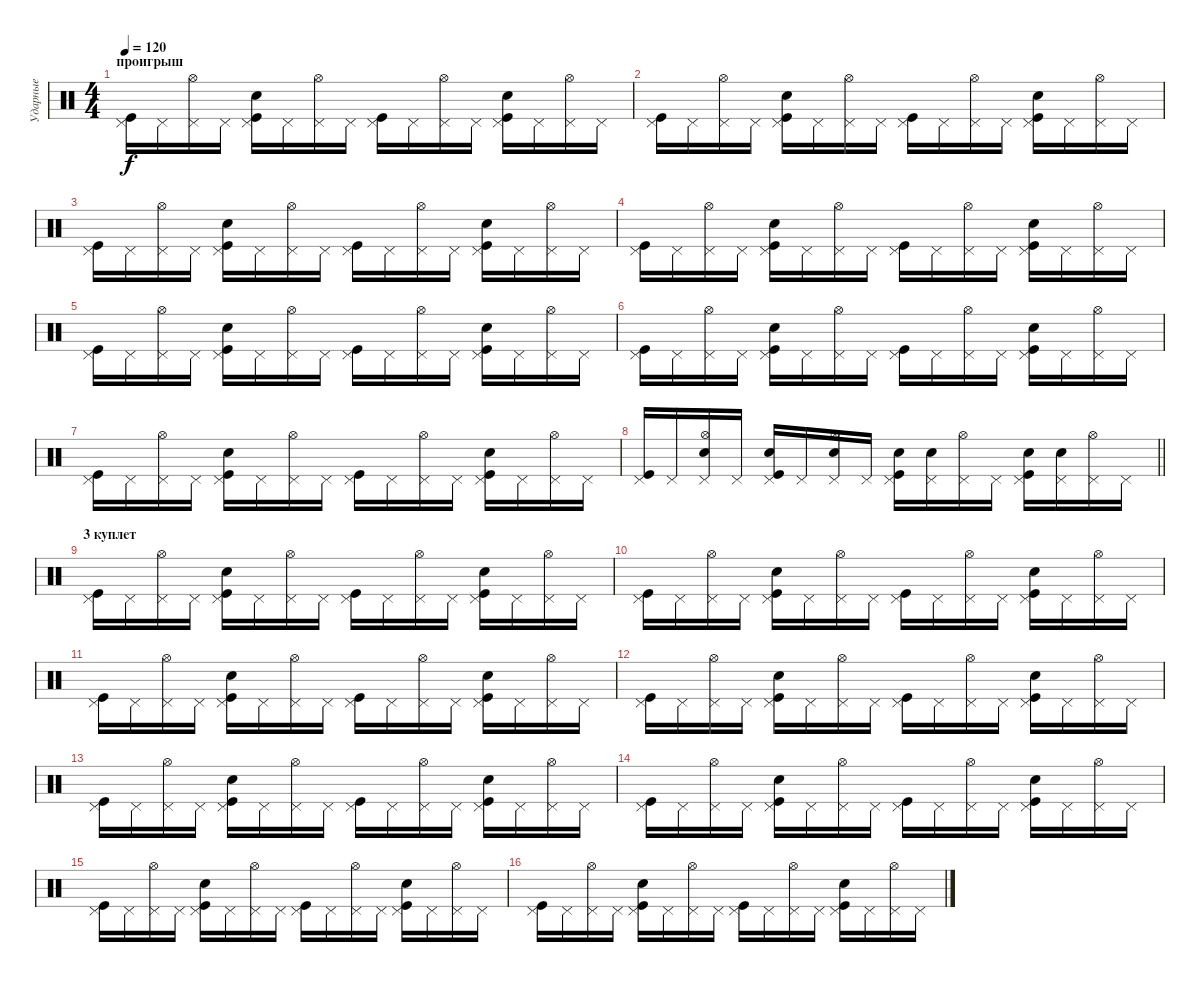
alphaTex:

\track ("Ударные" "Ударные") {instrument percussion}
\staff {score}
\articulation defaults
\ts (4 4)
\section ("" "проигрыш")
\tempo 120
\clef neutral
\ks c
("Pedal Hi-Hat (hit)" "Kick (hit)").16{dy f} "Pedal Hi-Hat (hit)".16 ("Pedal Hi-Hat (hit)" "Hi-Hat (open)").16 "Pedal Hi-Hat (hit)".16 ("Pedal Hi-Hat (hit)" "Kick (hit)" "Snare (hit) 2").16 "Pedal Hi-Hat (hit)".16 ("Pedal Hi-Hat (hit)" "Hi-Hat (open)").16 "Pedal Hi-Hat (hit)".16 ("Pedal Hi-Hat (hit)" "Kick (hit)").16 "Pedal Hi-Hat (hit)".16 ("Pedal Hi-Hat (hit)" "Hi-Hat (open)").16 "Pedal Hi-Hat (hit)".16 ("Pedal Hi-Hat (hit)" "Kick (hit)" "Snare (hit) 2").16 "Pedal Hi-Hat (hit)".16 ("Pedal Hi-Hat (hit)" "Hi-Hat (open)").16 "Pedal Hi-Hat (hit)".16 |
("Pedal Hi-Hat (hit)" "Kick (hit)").16 "Pedal Hi-Hat (hit)".16 ("Pedal Hi-Hat (hit)" "Hi-Hat (open)").16 "Pedal Hi-Hat (hit)".16 ("Pedal Hi-Hat (hit)" "Kick (hit)" "Snare (hit) 2").16 "Pedal Hi-Hat (hit)".16 ("Pedal Hi-Hat (hit)" "Hi-Hat (open)").16 "Pedal Hi-Hat (hit)".16 ("Pedal Hi-Hat (hit)" "Kick (hit)").16 "Pedal Hi-Hat (hit)".16 ("Pedal Hi-Hat (hit)" "Hi-Hat (open)").16 "Pedal Hi-Hat (hit)".16 ("Pedal Hi-Hat (hit)" "Kick (hit)" "Snare (hit) 2").16 "Pedal Hi-Hat (hit)".16 ("Pedal Hi-Hat (hit)" "Hi-Hat (open)").16 "Pedal Hi-Hat (hit)".16 |
("Pedal Hi-Hat (hit)" "Kick (hit)").16 "Pedal Hi-Hat (hit)".16 ("Pedal Hi-Hat (hit)" "Hi-Hat (open)").16 "Pedal Hi-Hat (hit)".16 ("Pedal Hi-Hat (hit)" "Kick (hit)" "Snare (hit) 2").16 "Pedal Hi-Hat (hit)".16 ("Pedal Hi-Hat (hit)" "Hi-Hat (open)").16 "Pedal Hi-Hat (hit)".16 ("Pedal Hi-Hat (hit)" "Kick (hit)").16 "Pedal Hi-Hat (hit)".16 ("Pedal Hi-Hat (hit)" "Hi-Hat (open)").16 "Pedal Hi-Hat (hit)".16 ("Pedal Hi-Hat (hit)" "Kick (hit)" "Snare (hit) 2").16 "Pedal Hi-Hat (hit)".16 ("Pedal Hi-Hat (hit)" "Hi-Hat (open)").16 "Pedal Hi-Hat (hit)".16 |
("Pedal Hi-Hat (hit)" "Kick (hit)").16 "Pedal Hi-Hat (hit)".16 ("Pedal Hi-Hat (hit)" "Hi-Hat (open)").16 "Pedal Hi-Hat (hit)".16 ("Pedal Hi-Hat (hit)" "Kick (hit)" "Snare (hit) 2").16 "Pedal Hi-Hat (hit)".16 ("Pedal Hi-Hat (hit)" "Hi-Hat (open)").16 "Pedal Hi-Hat (hit)".16 ("Pedal Hi-Hat (hit)" "Kick (hit)").16 "Pedal Hi-Hat (hit)".16 ("Pedal Hi-Hat (hit)" "Hi-Hat (open)").16 "Pedal Hi-Hat (hit)".16 ("Pedal Hi-Hat (hit)" "Kick (hit)" "Snare (hit) 2").16 "Pedal Hi-Hat (hit)".16 ("Pedal Hi-Hat (hit)" "Hi-Hat (open)").16 "Pedal Hi-Hat (hit)".16 |
("Pedal Hi-Hat (hit)" "Kick (hit)").16 "Pedal Hi-Hat (hit)".16 ("Pedal Hi-Hat (hit)" "Hi-Hat (open)").16 "Pedal Hi-Hat (hit)".16 ("Pedal Hi-Hat (hit)" "Kick (hit)" "Snare (hit) 2").16 "Pedal Hi-Hat (hit)".16 ("Pedal Hi-Hat (hit)" "Hi-Hat (open)").16 "Pedal Hi-Hat (hit)".16 ("Pedal Hi-Hat (hit)" "Kick (hit)").16 "Pedal Hi-Hat (hit)".16 ("Pedal Hi-Hat (hit)" "Hi-Hat (open)").16 "Pedal Hi-Hat (hit)".16 ("Pedal Hi-Hat (hit)" "Kick (hit)" "Snare (hit) 2").16 "Pedal Hi-Hat (hit)".16 ("Pedal Hi-Hat (hit)" "Hi-Hat (open)").16 "Pedal Hi-Hat (hit)".16 |
("Pedal Hi-Hat (hit)" "Kick (hit)").16 "Pedal Hi-Hat (hit)".16 ("Pedal Hi-Hat (hit)" "Hi-Hat (open)").16 "Pedal Hi-Hat (hit)".16 ("Pedal Hi-Hat (hit)" "Kick (hit)" "Snare (hit) 2").16 "Pedal Hi-Hat (hit)".16 ("Pedal Hi-Hat (hit)" "Hi-Hat (open)").16 "Pedal Hi-Hat (hit)".16 ("Pedal Hi-Hat (hit)" "Kick (hit)").16 "Pedal Hi-Hat (hit)".16 ("Pedal Hi-Hat (hit)" "Hi-Hat (open)").16 "Pedal Hi-Hat (hit)".16 ("Pedal Hi-Hat (hit)" "Kick (hit)" "Snare (hit) 2").16 "Pedal Hi-Hat (hit)".16 ("Pedal Hi-Hat (hit)" "Hi-Hat (open)").16 "Pedal Hi-Hat (hit)".16 |
("Pedal Hi-Hat (hit)" "Kick (hit)").16 "Pedal Hi-Hat (hit)".16 ("Pedal Hi-Hat (hit)" "Hi-Hat (open)").16 "Pedal Hi-Hat (hit)".16 ("Pedal Hi-Hat (hit)" "Kick (hit)" "Snare (hit) 2").16 "Pedal Hi-Hat (hit)".16 ("Pedal Hi-Hat (hit)" "Hi-Hat (open)").16 "Pedal Hi-Hat (hit)".16 ("Pedal Hi-Hat (hit)" "Kick (hit)").16 "Pedal Hi-Hat (hit)".16 ("Pedal Hi-Hat (hit)" "Hi-Hat (open)").16 "Pedal Hi-Hat (hit)".16 ("Pedal Hi-Hat (hit)" "Kick (hit)" "Snare (hit) 2").16 "Pedal Hi-Hat (hit)".16 ("Pedal Hi-Hat (hit)" "Hi-Hat (open)").16 "Pedal Hi-Hat (hit)".16 |
\barLineRight lightlight
("Pedal Hi-Hat (hit)" "Kick (hit)").16 "Pedal Hi-Hat (hit)".16 ("Pedal Hi-Hat (hit)" "Hi-Hat (open)" "Snare (hit) 2").16 "Pedal Hi-Hat (hit)".16 ("Pedal Hi-Hat (hit)" "Kick (hit)" "Snare (hit) 2").16 "Pedal Hi-Hat (hit)".16 ("Pedal Hi-Hat (hit)" "Hi-Hat (open)" "Snare (hit) 2").16 "Pedal Hi-Hat (hit)".16 ("Pedal Hi-Hat (hit)" "Kick (hit)" "Snare (hit) 2").16 ("Pedal Hi-Hat (hit)" "Snare (hit) 2").16 ("Pedal Hi-Hat (hit)" "Hi-Hat (open)").16 "Pedal Hi-Hat (hit)".16 ("Pedal Hi-Hat (hit)" "Kick (hit)" "Snare (hit) 2").16 ("Pedal Hi-Hat (hit)" "Snare (hit) 2").16 ("Pedal Hi-Hat (hit)" "Hi-Hat (open)").16 "Pedal Hi-Hat (hit)".16 |
\section ("" "3 куплет")
("Pedal Hi-Hat (hit)" "Kick (hit)").16 "Pedal Hi-Hat (hit)".16 ("Pedal Hi-Hat (hit)" "Hi-Hat (open)").16 "Pedal Hi-Hat (hit)".16 ("Pedal Hi-Hat (hit)" "Kick (hit)" "Snare (hit) 2").16 "Pedal Hi-Hat (hit)".16 ("Pedal Hi-Hat (hit)" "Hi-Hat (open)").16 "Pedal Hi-Hat (hit)".16 ("Pedal Hi-Hat (hit)" "Kick (hit)").16 "Pedal Hi-Hat (hit)".16 ("Pedal Hi-Hat (hit)" "Hi-Hat (open)").16 "Pedal Hi-Hat (hit)".16 ("Pedal Hi-Hat (hit)" "Kick (hit)" "Snare (hit) 2").16 "Pedal Hi-Hat (hit)".16 ("Pedal Hi-Hat (hit)" "Hi-Hat (open)").16 "Pedal Hi-Hat (hit)".16 |
("Pedal Hi-Hat (hit)" "Kick (hit)").16 "Pedal Hi-Hat (hit)".16 ("Pedal Hi-Hat (hit)" "Hi-Hat (open)").16 "Pedal Hi-Hat (hit)".16 ("Pedal Hi-Hat (hit)" "Kick (hit)" "Snare (hit) 2").16 "Pedal Hi-Hat (hit)".16 ("Pedal Hi-Hat (hit)" "Hi-Hat (open)").16 "Pedal Hi-Hat (hit)".16 ("Pedal Hi-Hat (hit)" "Kick (hit)").16 "Pedal Hi-Hat (hit)".16 ("Pedal Hi-Hat (hit)" "Hi-Hat (open)").16 "Pedal Hi-Hat (hit)".16 ("Pedal Hi-Hat (hit)" "Kick (hit)" "Snare (hit) 2").16 "Pedal Hi-Hat (hit)".16 ("Pedal Hi-Hat (hit)" "Hi-Hat (open)").16 "Pedal Hi-Hat (hit)".16 |
("Pedal Hi-Hat (hit)" "Kick (hit)").16 "Pedal Hi-Hat (hit)".16 ("Pedal Hi-Hat (hit)" "Hi-Hat (open)").16 "Pedal Hi-Hat (hit)".16 ("Pedal Hi-Hat (hit)" "Kick (hit)" "Snare (hit) 2").16 "Pedal Hi-Hat (hit)".16 ("Pedal Hi-Hat (hit)" "Hi-Hat (open)").16 "Pedal Hi-Hat (hit)".16 ("Pedal Hi-Hat (hit)" "Kick (hit)").16 "Pedal Hi-Hat (hit)".16 ("Pedal Hi-Hat (hit)" "Hi-Hat (open)").16 "Pedal Hi-Hat (hit)".16 ("Pedal Hi-Hat (hit)" "Kick (hit)" "Snare (hit) 2").16 "Pedal Hi-Hat (hit)".16 ("Pedal Hi-Hat (hit)" "Hi-Hat (open)").16 "Pedal Hi-Hat (hit)".16 |
("Pedal Hi-Hat (hit)" "Kick (hit)").16 "Pedal Hi-Hat (hit)".16 ("Pedal Hi-Hat (hit)" "Hi-Hat (open)").16 "Pedal Hi-Hat (hit)".16 ("Pedal Hi-Hat (hit)" "Kick (hit)" "Snare (hit) 2").16 "Pedal Hi-Hat (hit)".16 ("Pedal Hi-Hat (hit)" "Hi-Hat (open)").16 "Pedal Hi-Hat (hit)".16 ("Pedal Hi-Hat (hit)" "Kick (hit)").16 "Pedal Hi-Hat (hit)".16 ("Pedal Hi-Hat (hit)" "Hi-Hat (open)").16 "Pedal Hi-Hat (hit)".16 ("Pedal Hi-Hat (hit)" "Kick (hit)" "Snare (hit) 2").16 "Pedal Hi-Hat (hit)".16 ("Pedal Hi-Hat (hit)" "Hi-Hat (open)").16 "Pedal Hi-Hat (hit)".16 |
("Pedal Hi-Hat (hit)" "Kick (hit)").16 "Pedal Hi-Hat (hit)".16 ("Pedal Hi-Hat (hit)" "Hi-Hat (open)").16 "Pedal Hi-Hat (hit)".16 ("Pedal Hi-Hat (hit)" "Kick (hit)" "Snare (hit) 2").16 "Pedal Hi-Hat (hit)".16 ("Pedal Hi-Hat (hit)" "Hi-Hat (open)").16 "Pedal Hi-Hat (hit)".16 ("Pedal Hi-Hat (hit)" "Kick (hit)").16 "Pedal Hi-Hat (hit)".16 ("Pedal Hi-Hat (hit)" "Hi-Hat (open)").16 "Pedal Hi-Hat (hit)".16 ("Pedal Hi-Hat (hit)" "Kick (hit)" "Snare (hit) 2").16 "Pedal Hi-Hat (hit)".16 ("Pedal Hi-Hat (hit)" "Hi-Hat (open)").16 "Pedal Hi-Hat (hit)".16 |
("Pedal Hi-Hat (hit)" "Kick (hit)").16 "Pedal Hi-Hat (hit)".16 ("Pedal Hi-Hat (hit)" "Hi-Hat (open)").16 "Pedal Hi-Hat (hit)".16 ("Pedal Hi-Hat (hit)" "Kick (hit)" "Snare (hit) 2").16 "Pedal Hi-Hat (hit)".16 ("Pedal Hi-Hat (hit)" "Hi-Hat (open)").16 "Pedal Hi-Hat (hit)".16 ("Pedal Hi-Hat (hit)" "Kick (hit)").16 "Pedal Hi-Hat (hit)".16 ("Pedal Hi-Hat (hit)" "Hi-Hat (open)").16 "Pedal Hi-Hat (hit)".16 ("Pedal Hi-Hat (hit)" "Kick (hit)" "Snare (hit) 2").16 "Pedal Hi-Hat (hit)".16 ("Pedal Hi-Hat (hit)" "Hi-Hat (open)").16 "Pedal Hi-Hat (hit)".16 |
("Pedal Hi-Hat (hit)" "Kick (hit)").16 "Pedal Hi-Hat (hit)".16 ("Pedal Hi-Hat (hit)" "Hi-Hat (open)").16 "Pedal Hi-Hat (hit)".16 ("Pedal Hi-Hat (hit)" "Kick (hit)" "Snare (hit) 2").16 "Pedal Hi-Hat (hit)".16 ("Pedal Hi-Hat (hit)" "Hi-Hat (open)").16 "Pedal Hi-Hat (hit)".16 ("Pedal Hi-Hat (hit)" "Kick (hit)").16 "Pedal Hi-Hat (hit)".16 ("Pedal Hi-Hat (hit)" "Hi-Hat (open)").16 "Pedal Hi-Hat (hit)".16 ("Pedal Hi-Hat (hit)" "Kick (hit)" "Snare (hit) 2").16 "Pedal Hi-Hat (hit)".16 ("Pedal Hi-Hat (hit)" "Hi-Hat (open)").16 "Pedal Hi-Hat (hit)".16 |
("Pedal Hi-Hat (hit)" "Kick (hit)").16 "Pedal Hi-Hat (hit)".16 ("Pedal Hi-Hat (hit)" "Hi-Hat (open)").16 "Pedal Hi-Hat (hit)".16 ("Pedal Hi-Hat (hit)" "Kick (hit)" "Snare (hit) 2").16 "Pedal Hi-Hat (hit)".16 ("Pedal Hi-Hat (hit)" "Hi-Hat (open)").16 "Pedal Hi-Hat (hit)".16 ("Pedal Hi-Hat (hit)" "Kick (hit)").16 "Pedal Hi-Hat (hit)".16 ("Pedal Hi-Hat (hit)" "Hi-Hat (open)").16 "Pedal Hi-Hat (hit)".16 ("Pedal Hi-Hat (hit)" "Kick (hit)" "Snare (hit) 2").16 "Pedal Hi-Hat (hit)".16 ("Pedal Hi-Hat (hit)" "Hi-Hat (open)").16 "Pedal Hi-Hat (hit)".16
